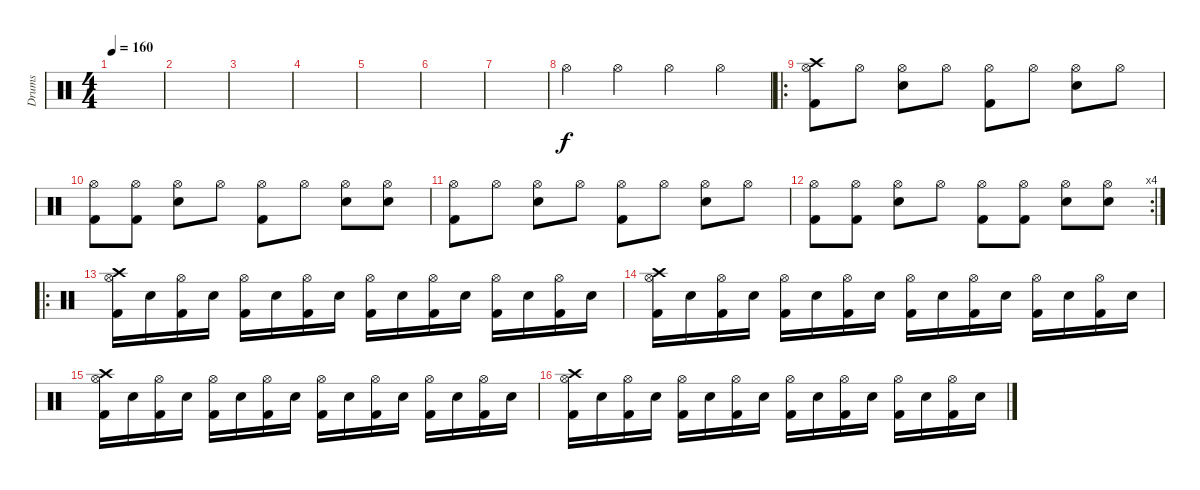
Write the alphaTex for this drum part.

\track ("Drums" "Drums") {instrument percussion}
\staff {score}
\articulation defaults
\ts (4 4)
\tempo 160
\clef neutral
\ks c
|
|
|
|
|
|
|
"Hi-Hat (open)".4 "Hi-Hat (open)".4 "Hi-Hat (open)".4 "Hi-Hat (open)".4 |
\ro
("Kick (hit) 2" "Hi-Hat (open)" "Crash high (hit)").8 "Hi-Hat (open)".8 ("Snare (hit) 2" "Hi-Hat (open)").8 "Hi-Hat (open)".8 ("Kick (hit) 2" "Hi-Hat (open)").8 "Hi-Hat (open)".8 ("Snare (hit) 2" "Hi-Hat (open)").8 "Hi-Hat (open)".8 |
("Kick (hit) 2" "Hi-Hat (open)").8 ("Kick (hit) 2" "Hi-Hat (open)").8 ("Snare (hit) 2" "Hi-Hat (open)").8 "Hi-Hat (open)".8 ("Kick (hit) 2" "Hi-Hat (open)").8 "Hi-Hat (open)".8 ("Snare (hit) 2" "Hi-Hat (open)").8 ("Snare (hit) 2" "Hi-Hat (open)").8 |
("Kick (hit) 2" "Hi-Hat (open)").8 "Hi-Hat (open)".8 ("Snare (hit) 2" "Hi-Hat (open)").8 "Hi-Hat (open)".8 ("Kick (hit) 2" "Hi-Hat (open)").8 "Hi-Hat (open)".8 ("Snare (hit) 2" "Hi-Hat (open)").8 "Hi-Hat (open)".8 |
\rc 4
("Kick (hit) 2" "Hi-Hat (open)").8 ("Kick (hit) 2" "Hi-Hat (open)").8 ("Snare (hit) 2" "Hi-Hat (open)").8 "Hi-Hat (open)".8 ("Kick (hit) 2" "Hi-Hat (open)").8 ("Kick (hit) 2" "Hi-Hat (open)").8 ("Snare (hit) 2" "Hi-Hat (open)").8 ("Snare (hit) 2" "Hi-Hat (open)").8 |
\ro
("Kick (hit) 2" "Hi-Hat (open)" "Crash high (hit)").16 "Snare (hit) 2".16 ("Kick (hit) 2" "Hi-Hat (open)").16 "Snare (hit) 2".16 ("Kick (hit) 2" "Hi-Hat (open)").16 "Snare (hit) 2".16 ("Kick (hit) 2" "Hi-Hat (open)").16 "Snare (hit) 2".16 ("Kick (hit) 2" "Hi-Hat (open)").16 "Snare (hit) 2".16 ("Kick (hit) 2" "Hi-Hat (open)").16 "Snare (hit) 2".16 ("Kick (hit) 2" "Hi-Hat (open)").16 "Snare (hit) 2".16 ("Kick (hit) 2" "Hi-Hat (open)").16 "Snare (hit) 2".16 |
("Kick (hit) 2" "Hi-Hat (open)" "Crash high (hit)").16 "Snare (hit) 2".16 ("Kick (hit) 2" "Hi-Hat (open)").16 "Snare (hit) 2".16 ("Kick (hit) 2" "Hi-Hat (open)").16 "Snare (hit) 2".16 ("Kick (hit) 2" "Hi-Hat (open)").16 "Snare (hit) 2".16 ("Kick (hit) 2" "Hi-Hat (open)").16 "Snare (hit) 2".16 ("Kick (hit) 2" "Hi-Hat (open)").16 "Snare (hit) 2".16 ("Kick (hit) 2" "Hi-Hat (open)").16 "Snare (hit) 2".16 ("Kick (hit) 2" "Hi-Hat (open)").16 "Snare (hit) 2".16 |
("Kick (hit) 2" "Hi-Hat (open)" "Crash high (hit)").16 "Snare (hit) 2".16 ("Kick (hit) 2" "Hi-Hat (open)").16 "Snare (hit) 2".16 ("Kick (hit) 2" "Hi-Hat (open)").16 "Snare (hit) 2".16 ("Kick (hit) 2" "Hi-Hat (open)").16 "Snare (hit) 2".16 ("Kick (hit) 2" "Hi-Hat (open)").16 "Snare (hit) 2".16 ("Kick (hit) 2" "Hi-Hat (open)").16 "Snare (hit) 2".16 ("Kick (hit) 2" "Hi-Hat (open)").16 "Snare (hit) 2".16 ("Kick (hit) 2" "Hi-Hat (open)").16 "Snare (hit) 2".16 |
("Kick (hit) 2" "Hi-Hat (open)" "Crash high (hit)").16 "Snare (hit) 2".16 ("Kick (hit) 2" "Hi-Hat (open)").16 "Snare (hit) 2".16 ("Kick (hit) 2" "Hi-Hat (open)").16 "Snare (hit) 2".16 ("Kick (hit) 2" "Hi-Hat (open)").16 "Snare (hit) 2".16 ("Kick (hit) 2" "Hi-Hat (open)").16 "Snare (hit) 2".16 ("Kick (hit) 2" "Hi-Hat (open)").16 "Snare (hit) 2".16 ("Kick (hit) 2" "Hi-Hat (open)").16 "Snare (hit) 2".16 ("Kick (hit) 2" "Hi-Hat (open)").16 "Snare (hit) 2".16
